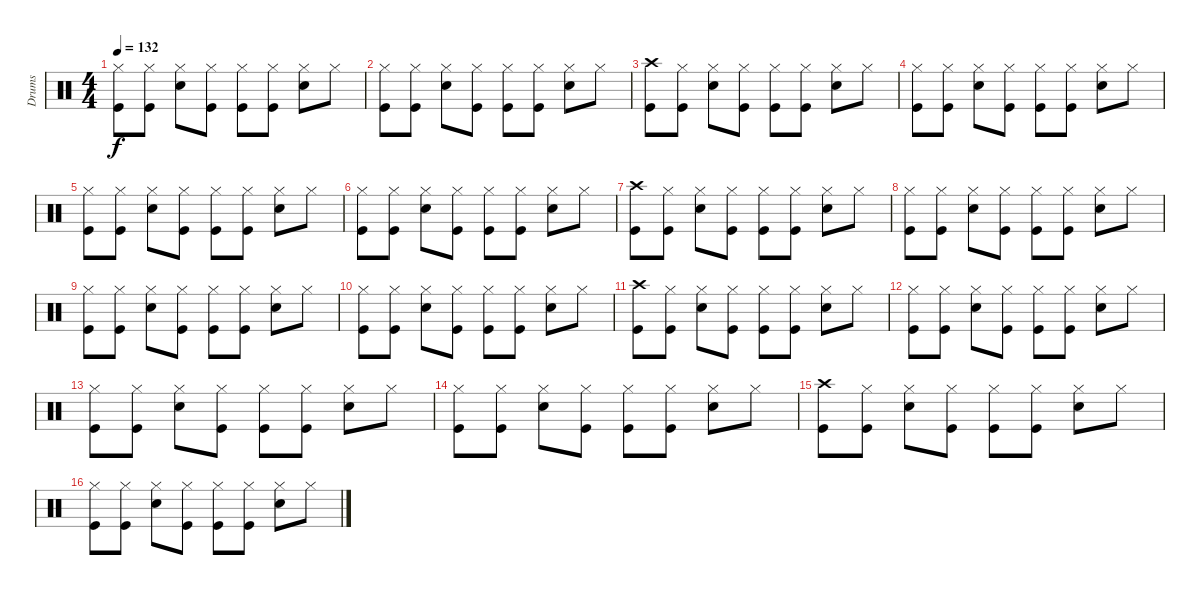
\track ("Drums" "Drums") {instrument percussion}
\staff {score}
\articulation defaults
\ts (4 4)
\tempo 132
\clef neutral
\ks c
("Hi-Hat (closed)" "Kick (hit)").8{dy f} ("Hi-Hat (closed)" "Kick (hit)").8 ("Hi-Hat (closed)" "Snare (hit) 2").8 ("Hi-Hat (closed)" "Kick (hit)").8 ("Hi-Hat (closed)" "Kick (hit)").8 ("Kick (hit)" "Hi-Hat (closed)").8 ("Hi-Hat (closed)" "Snare (hit) 2").8 "Hi-Hat (closed)".8 |
("Kick (hit)" "Hi-Hat (closed)").8 ("Kick (hit)" "Hi-Hat (closed)").8 ("Hi-Hat (closed)" "Snare (hit) 2").8 ("Hi-Hat (closed)" "Kick (hit)").8 ("Kick (hit)" "Hi-Hat (closed)").8 ("Hi-Hat (closed)" "Kick (hit)").8 ("Snare (hit) 2" "Hi-Hat (closed)").8 "Hi-Hat (closed)".8 |
("Crash high (hit)" "Kick (hit)").8 ("Hi-Hat (closed)" "Kick (hit)").8 ("Hi-Hat (closed)" "Snare (hit) 2").8 ("Hi-Hat (closed)" "Kick (hit)").8 ("Hi-Hat (closed)" "Kick (hit)").8 ("Kick (hit)" "Hi-Hat (closed)").8 ("Hi-Hat (closed)" "Snare (hit) 2").8 "Hi-Hat (closed)".8 |
("Hi-Hat (closed)" "Kick (hit)").8 ("Kick (hit)" "Hi-Hat (closed)").8 ("Hi-Hat (closed)" "Snare (hit) 2").8 ("Hi-Hat (closed)" "Kick (hit)").8 ("Kick (hit)" "Hi-Hat (closed)").8 ("Hi-Hat (closed)" "Kick (hit)").8 ("Snare (hit) 2" "Hi-Hat (closed)").8 "Hi-Hat (closed)".8 |
("Hi-Hat (closed)" "Kick (hit)").8 ("Hi-Hat (closed)" "Kick (hit)").8 ("Hi-Hat (closed)" "Snare (hit) 2").8 ("Hi-Hat (closed)" "Kick (hit)").8 ("Hi-Hat (closed)" "Kick (hit)").8 ("Kick (hit)" "Hi-Hat (closed)").8 ("Hi-Hat (closed)" "Snare (hit) 2").8 "Hi-Hat (closed)".8 |
("Hi-Hat (closed)" "Kick (hit)").8 ("Kick (hit)" "Hi-Hat (closed)").8 ("Hi-Hat (closed)" "Snare (hit) 2").8 ("Hi-Hat (closed)" "Kick (hit)").8 ("Kick (hit)" "Hi-Hat (closed)").8 ("Hi-Hat (closed)" "Kick (hit)").8 ("Snare (hit) 2" "Hi-Hat (closed)").8 "Hi-Hat (closed)".8 |
("Crash high (hit)" "Kick (hit)").8 ("Hi-Hat (closed)" "Kick (hit)").8 ("Hi-Hat (closed)" "Snare (hit) 2").8 ("Hi-Hat (closed)" "Kick (hit)").8 ("Hi-Hat (closed)" "Kick (hit)").8 ("Kick (hit)" "Hi-Hat (closed)").8 ("Hi-Hat (closed)" "Snare (hit) 2").8 "Hi-Hat (closed)".8 |
("Kick (hit)" "Hi-Hat (closed)").8 ("Kick (hit)" "Hi-Hat (closed)").8 ("Hi-Hat (closed)" "Snare (hit) 2").8 ("Kick (hit)" "Hi-Hat (closed)").8 ("Kick (hit)" "Hi-Hat (closed)").8 ("Hi-Hat (closed)" "Kick (hit)").8 ("Snare (hit) 2" "Hi-Hat (closed)").8 "Hi-Hat (closed)".8 |
("Hi-Hat (closed)" "Kick (hit)").8 ("Hi-Hat (closed)" "Kick (hit)").8 ("Hi-Hat (closed)" "Snare (hit) 2").8 ("Hi-Hat (closed)" "Kick (hit)").8 ("Hi-Hat (closed)" "Kick (hit)").8 ("Kick (hit)" "Hi-Hat (closed)").8 ("Hi-Hat (closed)" "Snare (hit) 2").8 "Hi-Hat (closed)".8 |
("Kick (hit)" "Hi-Hat (closed)").8 ("Kick (hit)" "Hi-Hat (closed)").8 ("Hi-Hat (closed)" "Snare (hit) 2").8 ("Hi-Hat (closed)" "Kick (hit)").8 ("Hi-Hat (closed)" "Kick (hit)").8 ("Hi-Hat (closed)" "Kick (hit)").8 ("Snare (hit) 2" "Hi-Hat (closed)").8 "Hi-Hat (closed)".8 |
("Crash high (hit)" "Kick (hit)").8 ("Hi-Hat (closed)" "Kick (hit)").8 ("Hi-Hat (closed)" "Snare (hit) 2").8 ("Hi-Hat (closed)" "Kick (hit)").8 ("Hi-Hat (closed)" "Kick (hit)").8 ("Kick (hit)" "Hi-Hat (closed)").8 ("Hi-Hat (closed)" "Snare (hit) 2").8 "Hi-Hat (closed)".8 |
("Kick (hit)" "Hi-Hat (closed)").8 ("Kick (hit)" "Hi-Hat (closed)").8 ("Hi-Hat (closed)" "Snare (hit) 2").8 ("Hi-Hat (closed)" "Kick (hit)").8 ("Kick (hit)" "Hi-Hat (closed)").8 ("Hi-Hat (closed)" "Kick (hit)").8 ("Snare (hit) 2" "Hi-Hat (closed)").8 "Hi-Hat (closed)".8 |
("Hi-Hat (closed)" "Kick (hit)").8 ("Hi-Hat (closed)" "Kick (hit)").8 ("Hi-Hat (closed)" "Snare (hit) 2").8 ("Hi-Hat (closed)" "Kick (hit)").8 ("Hi-Hat (closed)" "Kick (hit)").8 ("Kick (hit)" "Hi-Hat (closed)").8 ("Hi-Hat (closed)" "Snare (hit) 2").8 "Hi-Hat (closed)".8 |
("Kick (hit)" "Hi-Hat (closed)").8 ("Kick (hit)" "Hi-Hat (closed)").8 ("Hi-Hat (closed)" "Snare (hit) 2").8 ("Hi-Hat (closed)" "Kick (hit)").8 ("Kick (hit)" "Hi-Hat (closed)").8 ("Hi-Hat (closed)" "Kick (hit)").8 ("Snare (hit) 2" "Hi-Hat (closed)").8 "Hi-Hat (closed)".8 |
("Crash high (hit)" "Kick (hit)").8 ("Hi-Hat (closed)" "Kick (hit)").8 ("Hi-Hat (closed)" "Snare (hit) 2").8 ("Hi-Hat (closed)" "Kick (hit)").8 ("Hi-Hat (closed)" "Kick (hit)").8 ("Kick (hit)" "Hi-Hat (closed)").8 ("Hi-Hat (closed)" "Snare (hit) 2").8 "Hi-Hat (closed)".8 |
("Kick (hit)" "Hi-Hat (closed)").8 ("Kick (hit)" "Hi-Hat (closed)").8 ("Hi-Hat (closed)" "Snare (hit) 2").8 ("Hi-Hat (closed)" "Kick (hit)").8 ("Kick (hit)" "Hi-Hat (closed)").8 ("Hi-Hat (closed)" "Kick (hit)").8 ("Snare (hit) 2" "Hi-Hat (closed)").8 "Hi-Hat (closed)".8
